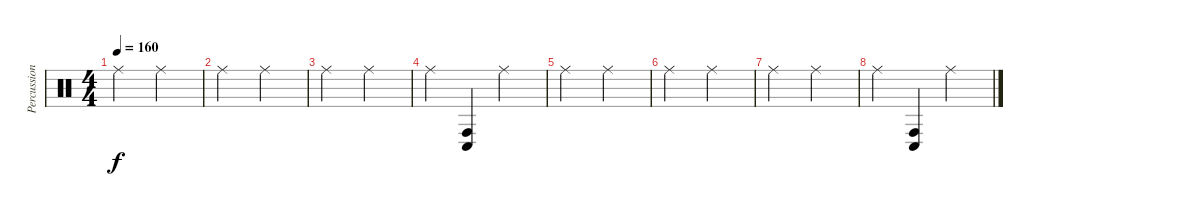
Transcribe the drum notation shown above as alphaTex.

\track ("Percussion" "Percussion") {instrument percussion}
\staff {score}
\articulation defaults
\ts (4 4)
\tempo 160
\clef neutral
\ks c "Ride (middle)".2{dy f} "Ride (middle)".2
|
"Ride (middle)".2 "Ride (middle)".2 |
"Ride (middle)".2 "Ride (middle)".2 |
"Ride (middle)".4 ("Conga low (hit)" "Conga high (hit)").4 "Ride (middle)".2 |
"Ride (middle)".2 "Ride (middle)".2 |
"Ride (middle)".2 "Ride (middle)".2 |
"Ride (middle)".2 "Ride (middle)".2 |
"Ride (middle)".4 ("Conga low (hit)" "Conga high (hit)").4 "Ride (middle)".2
